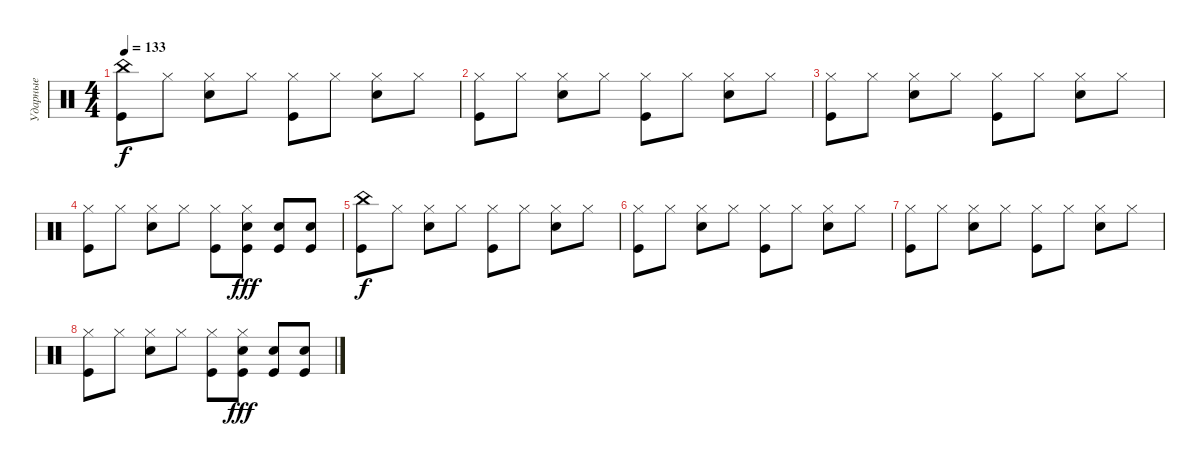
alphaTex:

\track ("Ударные" "Ударные") {instrument percussion}
\staff {score}
\articulation defaults
\ts (4 4)
\tempo 133
\clef neutral
\ks c
("China (hit)" "Kick (hit)").8{dy f} "Hi-Hat (closed)".8 ("Hi-Hat (closed)" "Electric Snare (hit)").8 "Hi-Hat (closed)".8 ("Hi-Hat (closed)" "Kick (hit)").8 "Hi-Hat (closed)".8 ("Hi-Hat (closed)" "Electric Snare (hit)").8 "Hi-Hat (closed)".8 |
("Hi-Hat (closed)" "Kick (hit)").8 "Hi-Hat (closed)".8 ("Hi-Hat (closed)" "Electric Snare (hit)").8 "Hi-Hat (closed)".8 ("Hi-Hat (closed)" "Kick (hit)").8 "Hi-Hat (closed)".8 ("Hi-Hat (closed)" "Electric Snare (hit)").8 "Hi-Hat (closed)".8 |
("Hi-Hat (closed)" "Kick (hit)").8 "Hi-Hat (closed)".8 ("Hi-Hat (closed)" "Electric Snare (hit)").8 "Hi-Hat (closed)".8 ("Hi-Hat (closed)" "Kick (hit)").8 "Hi-Hat (closed)".8 ("Hi-Hat (closed)" "Electric Snare (hit)").8 "Hi-Hat (closed)".8 |
("Hi-Hat (closed)" "Kick (hit)").8 "Hi-Hat (closed)".8 ("Hi-Hat (closed)" "Electric Snare (hit)").8 "Hi-Hat (closed)".8 ("Hi-Hat (closed)" "Kick (hit)").8 ("Electric Snare (hit)" "Hi-Hat (closed)" "Kick (hit)").8{dy fff} ("Electric Snare (hit)" "Kick (hit)").8 ("Electric Snare (hit)" "Kick (hit)").8 |
("China (hit)" "Kick (hit)").8{dy f} "Hi-Hat (closed)".8 ("Hi-Hat (closed)" "Electric Snare (hit)").8 "Hi-Hat (closed)".8 ("Hi-Hat (closed)" "Kick (hit)").8 "Hi-Hat (closed)".8 ("Hi-Hat (closed)" "Electric Snare (hit)").8 "Hi-Hat (closed)".8 |
("Hi-Hat (closed)" "Kick (hit)").8 "Hi-Hat (closed)".8 ("Hi-Hat (closed)" "Electric Snare (hit)").8 "Hi-Hat (closed)".8 ("Hi-Hat (closed)" "Kick (hit)").8 "Hi-Hat (closed)".8 ("Hi-Hat (closed)" "Electric Snare (hit)").8 "Hi-Hat (closed)".8 |
("Hi-Hat (closed)" "Kick (hit)").8 "Hi-Hat (closed)".8 ("Hi-Hat (closed)" "Electric Snare (hit)").8 "Hi-Hat (closed)".8 ("Hi-Hat (closed)" "Kick (hit)").8 "Hi-Hat (closed)".8 ("Hi-Hat (closed)" "Electric Snare (hit)").8 "Hi-Hat (closed)".8 |
("Hi-Hat (closed)" "Kick (hit)").8 "Hi-Hat (closed)".8 ("Hi-Hat (closed)" "Electric Snare (hit)").8 "Hi-Hat (closed)".8 ("Hi-Hat (closed)" "Kick (hit)").8 ("Electric Snare (hit)" "Hi-Hat (closed)" "Kick (hit)").8{dy fff} ("Electric Snare (hit)" "Kick (hit)").8 ("Electric Snare (hit)" "Kick (hit)").8
